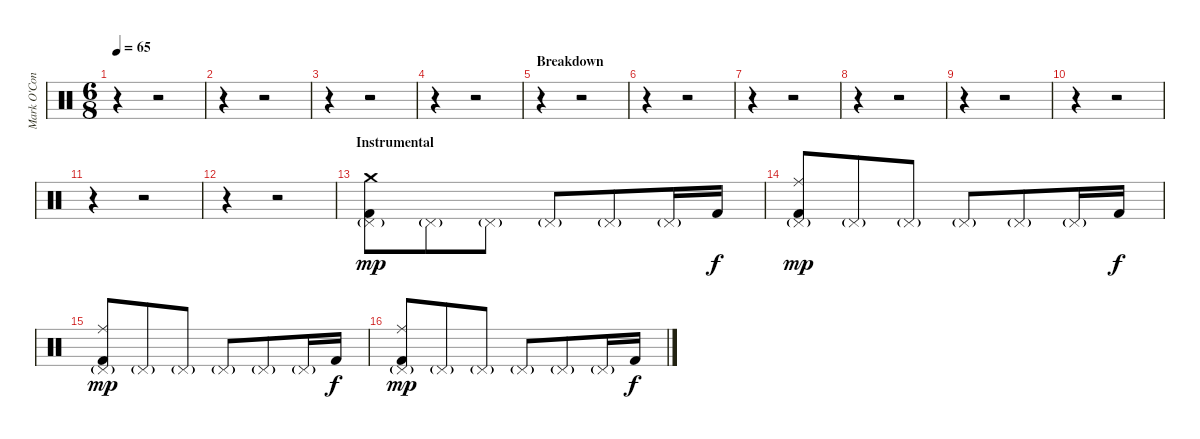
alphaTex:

\track ("Mark O'Connell (Drums)" "Mark O'Con") {instrument percussion}
\staff {score}
\articulation defaults
\ts (6 8)
\tempo 65
\clef neutral
\ks c
r.4{dy mp} r.2 |
r.4 r.2 |
r.4 r.2 |
r.4 r.2 |
\section ("" "Breakdown")
r.4 r.2 |
r.4 r.2 |
r.4 r.2 |
r.4 r.2 |
r.4 r.2 |
r.4 r.2 |
r.4 r.2 |
r.4 r.2 |
\section ("" "Instrumental")
("Crash medium (hit)" "Pedal Hi-Hat (hit)"{g} "Kick (hit) 2").8 "Pedal Hi-Hat (hit)"{g}.8 "Pedal Hi-Hat (hit)"{g}.8 "Pedal Hi-Hat (hit)"{g}.8 "Pedal Hi-Hat (hit)"{g}.8 "Pedal Hi-Hat (hit)"{g}.16 "Kick (hit) 2".16{dy f} |
("Ride (middle)" "Pedal Hi-Hat (hit)"{g} "Kick (hit) 2").8{dy mp} "Pedal Hi-Hat (hit)"{g}.8 "Pedal Hi-Hat (hit)"{g}.8 "Pedal Hi-Hat (hit)"{g}.8 "Pedal Hi-Hat (hit)"{g}.8 "Pedal Hi-Hat (hit)"{g}.16 "Kick (hit) 2".16{dy f} |
("Ride (middle)" "Pedal Hi-Hat (hit)"{g} "Kick (hit) 2").8{dy mp} "Pedal Hi-Hat (hit)"{g}.8 "Pedal Hi-Hat (hit)"{g}.8 "Pedal Hi-Hat (hit)"{g}.8 "Pedal Hi-Hat (hit)"{g}.8 "Pedal Hi-Hat (hit)"{g}.16 "Kick (hit) 2".16{dy f} |
("Ride (middle)" "Pedal Hi-Hat (hit)"{g} "Kick (hit) 2").8{dy mp} "Pedal Hi-Hat (hit)"{g}.8 "Pedal Hi-Hat (hit)"{g}.8 "Pedal Hi-Hat (hit)"{g}.8 "Pedal Hi-Hat (hit)"{g}.8 "Pedal Hi-Hat (hit)"{g}.16 "Kick (hit) 2".16{dy f}
